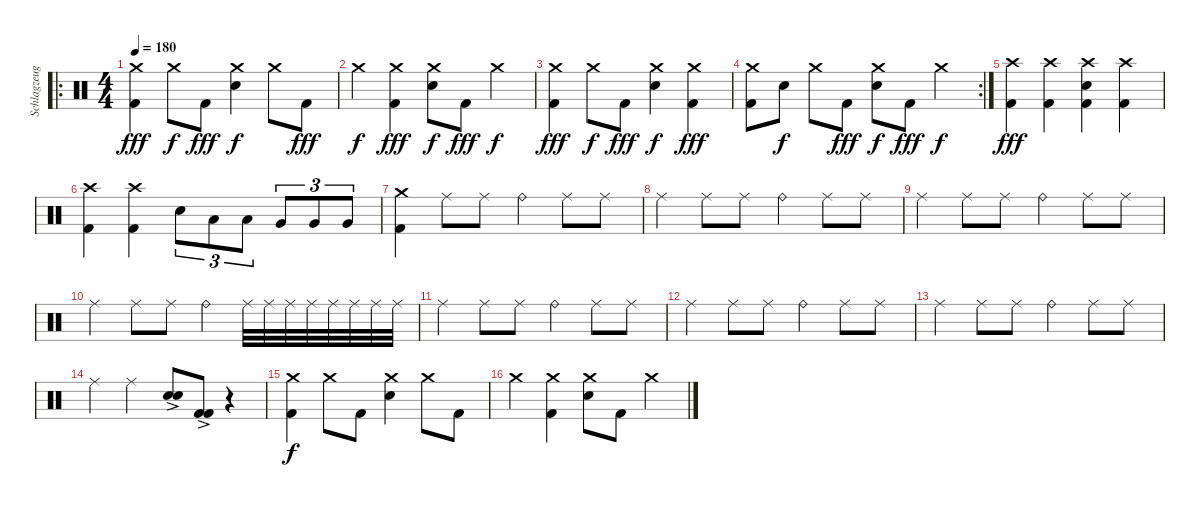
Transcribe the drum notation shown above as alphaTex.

\track ("Schlagzeug" "Schlagzeug") {instrument percussion}
\staff {score}
\articulation defaults
\ro
\ts (4 4)
\tempo 180
\clef neutral
\ks c
("Crash medium (hit)" "Kick (hit) 2").4{dy fff} "Crash medium (hit)".8{dy f} "Kick (hit) 2".8{dy fff} ("Crash medium (hit)" "Electric Snare (hit)").4{dy f} "Crash medium (hit)".8 "Kick (hit) 2".8{dy fff} |
"Crash medium (hit)".4{dy f} ("Crash medium (hit)" "Kick (hit) 2").4{dy fff} ("Crash medium (hit)" "Electric Snare (hit)").8{dy f} "Kick (hit) 2".8{dy fff} "Crash medium (hit)".4{dy f} |
("Crash medium (hit)" "Kick (hit) 2").4{dy fff} "Crash medium (hit)".8{dy f} "Kick (hit) 2".8{dy fff} ("Crash medium (hit)" "Electric Snare (hit)").4{dy f} ("Crash medium (hit)" "Kick (hit) 2").4{dy fff} |
\rc 2
("Crash medium (hit)" "Kick (hit) 2").8 "Electric Snare (hit)".8{dy f} "Crash medium (hit)".8 "Kick (hit) 2".8{dy fff} ("Crash medium (hit)" "Electric Snare (hit)").8{dy f} "Kick (hit) 2".8{dy fff} "Crash medium (hit)".4{dy f} |
("Crash high (hit)" "Kick (hit) 2").4{dy fff} ("Crash high (hit)" "Kick (hit) 2").4 ("Crash high (hit)" "Kick (hit) 2" "Electric Snare (hit)").4 ("Crash high (hit)" "Kick (hit) 2").4 |
("Crash high (hit)" "Kick (hit) 2").4 ("Crash high (hit)" "Kick (hit) 2").4 "Electric Snare (hit)".8{tu (3 2)} "Low Tom (hit)".8{tu (3 2)} "Low Tom (hit)".8{tu (3 2)} "Very Low Tom (hit)".8{tu (3 2)} "Very Low Tom (hit)".8{tu (3 2)} "Very Low Tom (hit)".8{tu (3 2)} |
("Crash medium (hit)" "Kick (hit) 2").4 "Ride (middle)".8 "Ride (middle)".8 "Ride (bell)".4 "Ride (middle)".8 "Ride (middle)".8 |
"Ride (middle)".4 "Ride (middle)".8 "Ride (middle)".8 "Ride (bell)".4 "Ride (middle)".8 "Ride (middle)".8 |
"Ride (middle)".4 "Ride (middle)".8 "Ride (middle)".8 "Ride (bell)".4 "Ride (middle)".8 "Ride (middle)".8 |
"Ride (middle)".4 "Ride (middle)".8 "Ride (middle)".8 "Ride (bell)".4 "Ride (middle)".32 "Ride (middle)".32 "Ride (middle)".32 "Ride (middle)".32 "Ride (middle)".32 "Ride (middle)".32 "Ride (middle)".32 "Ride (middle)".32 |
"Ride (middle)".4 "Ride (middle)".8 "Ride (middle)".8 "Ride (bell)".4 "Ride (middle)".8 "Ride (middle)".8 |
"Ride (middle)".4 "Ride (middle)".8 "Ride (middle)".8 "Ride (bell)".4 "Ride (middle)".8 "Ride (middle)".8 |
"Ride (middle)".4 "Ride (middle)".8 "Ride (middle)".8 "Ride (bell)".4 "Ride (middle)".8 "Ride (middle)".8 |
"Ride (middle)".4 "Ride (middle)".4 ("Electric Snare (hit)"{ac} "Electric Snare (hit)"{ac}).8 ("Kick (hit) 2"{ac} "Kick (hit) 2"{ac}).8 r.4 |
("Crash medium (hit)" "Kick (hit) 2").4{dy f} "Crash medium (hit)".8 "Kick (hit) 2".8 ("Crash medium (hit)" "Electric Snare (hit)").4 "Crash medium (hit)".8 "Kick (hit) 2".8 |
"Crash medium (hit)".4 ("Crash medium (hit)" "Kick (hit) 2").4 ("Crash medium (hit)" "Electric Snare (hit)").8 "Kick (hit) 2".8 "Crash medium (hit)".4
